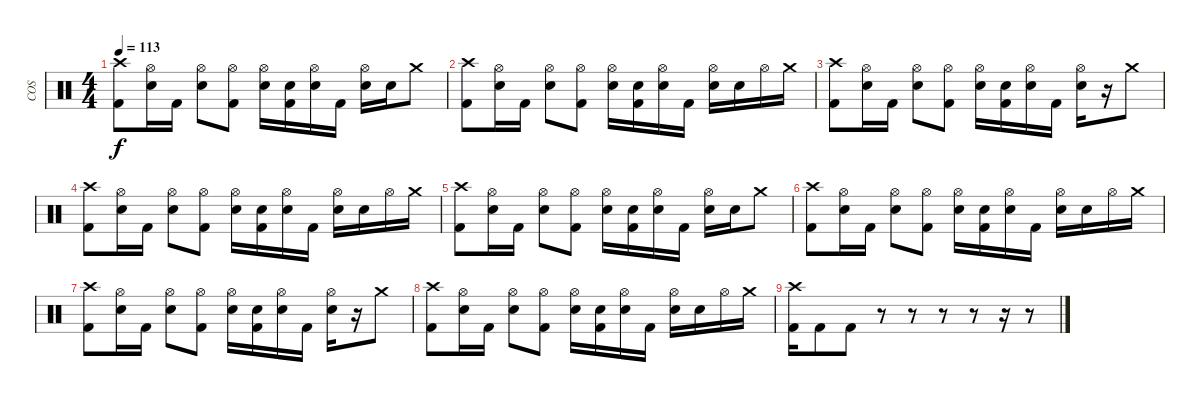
\track ("COS" "COS") {instrument percussion}
\staff {score}
\articulation defaults
\ts (4 4)
\tempo 113
\clef neutral
\ks c
("Crash high (hit)" "Kick (hit) 2").8{dy f} ("Hi-Hat (open)" "Snare (hit)").16 "Kick (hit) 2".16 ("Hi-Hat (open)" "Electric Snare (hit)").8 ("Hi-Hat (open)" "Kick (hit) 2").8 ("Hi-Hat (open)" "Snare (hit)").16 ("Snare (hit)" "Kick (hit) 2").16 ("Hi-Hat (open)" "Electric Snare (hit)").16 "Kick (hit) 2".16 ("Hi-Hat (open)" "Electric Snare (hit)").16 "Electric Snare (hit)".16 "Crash medium (hit)".8 |
("Crash high (hit)" "Kick (hit) 2").8 ("Hi-Hat (open)" "Snare (hit)").16 "Kick (hit) 2".16 ("Hi-Hat (open)" "Electric Snare (hit)").8 ("Hi-Hat (open)" "Kick (hit) 2").8 ("Hi-Hat (open)" "Snare (hit)").16 ("Snare (hit)" "Kick (hit) 2").16 ("Hi-Hat (open)" "Electric Snare (hit)").16 "Kick (hit) 2".16 ("Hi-Hat (open)" "Electric Snare (hit)").16 "Electric Snare (hit)".16 "Hi-Hat (open)".16 "Crash medium (hit)".16 |
("Crash high (hit)" "Kick (hit) 2").8 ("Hi-Hat (open)" "Snare (hit)").16 "Kick (hit) 2".16 ("Hi-Hat (open)" "Electric Snare (hit)").8 ("Hi-Hat (open)" "Kick (hit) 2").8 ("Hi-Hat (open)" "Snare (hit)").16 ("Snare (hit)" "Kick (hit) 2").16 ("Hi-Hat (open)" "Electric Snare (hit)").16 "Kick (hit) 2".16 ("Hi-Hat (open)" "Electric Snare (hit)").16 r.16 "Crash medium (hit)".8 |
("Crash high (hit)" "Kick (hit) 2").8 ("Hi-Hat (open)" "Snare (hit)").16 "Kick (hit) 2".16 ("Hi-Hat (open)" "Electric Snare (hit)").8 ("Hi-Hat (open)" "Kick (hit) 2").8 ("Hi-Hat (open)" "Snare (hit)").16 ("Snare (hit)" "Kick (hit) 2").16 ("Hi-Hat (open)" "Electric Snare (hit)").16 "Kick (hit) 2".16 ("Hi-Hat (open)" "Electric Snare (hit)").16 "Electric Snare (hit)".16 "Hi-Hat (open)".16 "Crash medium (hit)".16 |
("Crash high (hit)" "Kick (hit) 2").8 ("Hi-Hat (open)" "Snare (hit)").16 "Kick (hit) 2".16 ("Hi-Hat (open)" "Electric Snare (hit)").8 ("Hi-Hat (open)" "Kick (hit) 2").8 ("Hi-Hat (open)" "Snare (hit)").16 ("Snare (hit)" "Kick (hit) 2").16 ("Hi-Hat (open)" "Electric Snare (hit)").16 "Kick (hit) 2".16 ("Hi-Hat (open)" "Electric Snare (hit)").16 "Electric Snare (hit)".16 "Crash medium (hit)".8 |
("Crash high (hit)" "Kick (hit) 2").8 ("Hi-Hat (open)" "Snare (hit)").16 "Kick (hit) 2".16 ("Hi-Hat (open)" "Electric Snare (hit)").8 ("Hi-Hat (open)" "Kick (hit) 2").8 ("Hi-Hat (open)" "Snare (hit)").16 ("Snare (hit)" "Kick (hit) 2").16 ("Hi-Hat (open)" "Electric Snare (hit)").16 "Kick (hit) 2".16 ("Hi-Hat (open)" "Electric Snare (hit)").16 "Electric Snare (hit)".16 "Hi-Hat (open)".16 "Crash medium (hit)".16 |
("Crash high (hit)" "Kick (hit) 2").8 ("Hi-Hat (open)" "Snare (hit)").16 "Kick (hit) 2".16 ("Hi-Hat (open)" "Electric Snare (hit)").8 ("Hi-Hat (open)" "Kick (hit) 2").8 ("Hi-Hat (open)" "Snare (hit)").16 ("Snare (hit)" "Kick (hit) 2").16 ("Hi-Hat (open)" "Electric Snare (hit)").16 "Kick (hit) 2".16 ("Hi-Hat (open)" "Electric Snare (hit)").16 r.16 "Crash medium (hit)".8 |
("Crash high (hit)" "Kick (hit) 2").8 ("Hi-Hat (open)" "Snare (hit)").16 "Kick (hit) 2".16 ("Hi-Hat (open)" "Electric Snare (hit)").8 ("Hi-Hat (open)" "Kick (hit) 2").8 ("Hi-Hat (open)" "Snare (hit)").16 ("Snare (hit)" "Kick (hit) 2").16 ("Hi-Hat (open)" "Electric Snare (hit)").16 "Kick (hit) 2".16 ("Hi-Hat (open)" "Electric Snare (hit)").16 "Electric Snare (hit)".16 "Hi-Hat (open)".16 "Crash medium (hit)".16 |
("Kick (hit) 2" "Crash high (hit)").16 "Kick (hit) 2".8 "Kick (hit) 2".8 r.8 r.8 r.8 r.8 r.16 r.8
